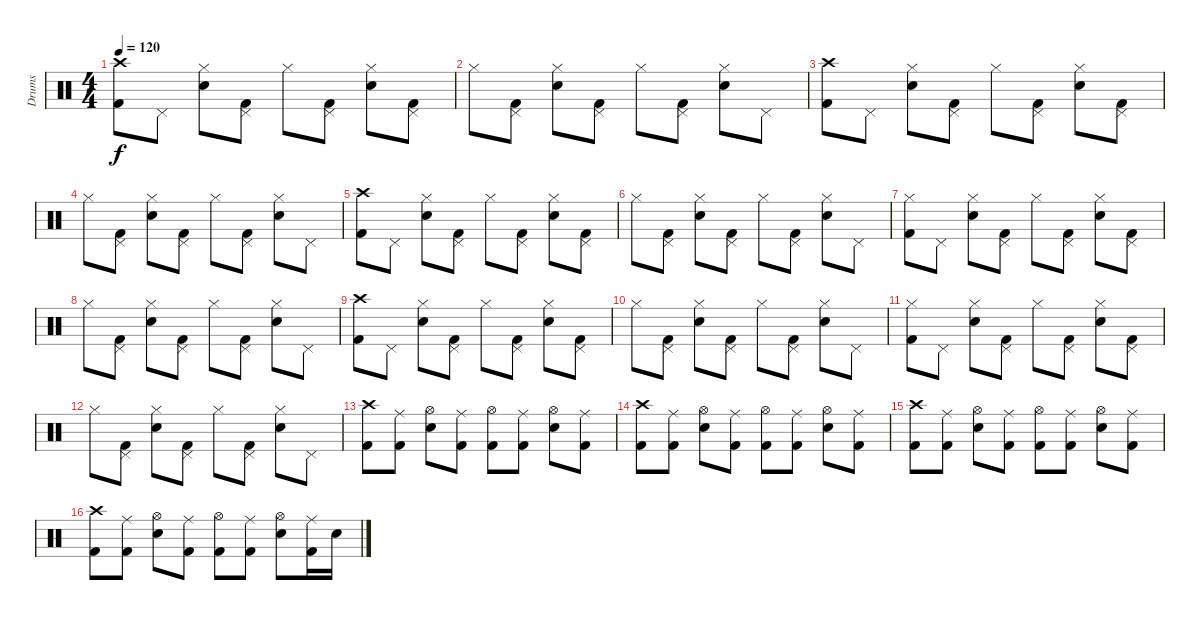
\track ("Drums" "Drums") {instrument percussion}
\staff {score}
\articulation defaults
\ts (4 4)
\tempo 120
\clef neutral
\ks c
("Kick (hit) 2" "Crash high (hit)").8{dy f} "Pedal Hi-Hat (hit)".8 ("Electric Snare (hit)" "Hi-Hat (closed)").8 ("Kick (hit) 2" "Pedal Hi-Hat (hit)").8 "Hi-Hat (closed)".8 ("Kick (hit) 2" "Pedal Hi-Hat (hit)").8 ("Electric Snare (hit)" "Hi-Hat (closed)").8 ("Kick (hit) 2" "Pedal Hi-Hat (hit)").8 |
"Hi-Hat (closed)".8 ("Kick (hit) 2" "Pedal Hi-Hat (hit)").8 ("Electric Snare (hit)" "Hi-Hat (closed)").8 ("Kick (hit) 2" "Pedal Hi-Hat (hit)").8 "Hi-Hat (closed)".8 ("Kick (hit) 2" "Pedal Hi-Hat (hit)").8 ("Electric Snare (hit)" "Hi-Hat (closed)").8 "Pedal Hi-Hat (hit)".8 |
("Kick (hit) 2" "Crash high (hit)").8 "Pedal Hi-Hat (hit)".8 ("Electric Snare (hit)" "Hi-Hat (closed)").8 ("Kick (hit) 2" "Pedal Hi-Hat (hit)").8 "Hi-Hat (closed)".8 ("Kick (hit) 2" "Pedal Hi-Hat (hit)").8 ("Electric Snare (hit)" "Hi-Hat (closed)").8 ("Kick (hit) 2" "Pedal Hi-Hat (hit)").8 |
"Hi-Hat (closed)".8 ("Kick (hit) 2" "Pedal Hi-Hat (hit)").8 ("Electric Snare (hit)" "Hi-Hat (closed)").8 ("Kick (hit) 2" "Pedal Hi-Hat (hit)").8 "Hi-Hat (closed)".8 ("Kick (hit) 2" "Pedal Hi-Hat (hit)").8 ("Electric Snare (hit)" "Hi-Hat (closed)").8 "Pedal Hi-Hat (hit)".8 |
("Kick (hit) 2" "Crash high (hit)").8 "Pedal Hi-Hat (hit)".8 ("Electric Snare (hit)" "Hi-Hat (closed)").8 ("Kick (hit) 2" "Pedal Hi-Hat (hit)").8 "Hi-Hat (closed)".8 ("Kick (hit) 2" "Pedal Hi-Hat (hit)").8 ("Electric Snare (hit)" "Hi-Hat (closed)").8 ("Kick (hit) 2" "Pedal Hi-Hat (hit)").8 |
"Hi-Hat (closed)".8 ("Kick (hit) 2" "Pedal Hi-Hat (hit)").8 ("Electric Snare (hit)" "Hi-Hat (closed)").8 ("Kick (hit) 2" "Pedal Hi-Hat (hit)").8 "Hi-Hat (closed)".8 ("Kick (hit) 2" "Pedal Hi-Hat (hit)").8 ("Electric Snare (hit)" "Hi-Hat (closed)").8 "Pedal Hi-Hat (hit)".8 |
("Kick (hit) 2" "Hi-Hat (closed)").8 "Pedal Hi-Hat (hit)".8 ("Electric Snare (hit)" "Hi-Hat (closed)").8 ("Kick (hit) 2" "Pedal Hi-Hat (hit)").8 "Hi-Hat (closed)".8 ("Kick (hit) 2" "Pedal Hi-Hat (hit)").8 ("Electric Snare (hit)" "Hi-Hat (closed)").8 ("Kick (hit) 2" "Pedal Hi-Hat (hit)").8 |
"Hi-Hat (closed)".8 ("Kick (hit) 2" "Pedal Hi-Hat (hit)").8 ("Electric Snare (hit)" "Hi-Hat (closed)").8 ("Kick (hit) 2" "Pedal Hi-Hat (hit)").8 "Hi-Hat (closed)".8 ("Kick (hit) 2" "Pedal Hi-Hat (hit)").8 ("Electric Snare (hit)" "Hi-Hat (closed)").8 "Pedal Hi-Hat (hit)".8 |
("Kick (hit) 2" "Crash high (hit)").8 "Pedal Hi-Hat (hit)".8 ("Electric Snare (hit)" "Hi-Hat (closed)").8 ("Kick (hit) 2" "Pedal Hi-Hat (hit)").8 "Hi-Hat (closed)".8 ("Kick (hit) 2" "Pedal Hi-Hat (hit)").8 ("Electric Snare (hit)" "Hi-Hat (closed)").8 ("Kick (hit) 2" "Pedal Hi-Hat (hit)").8 |
"Hi-Hat (closed)".8 ("Kick (hit) 2" "Pedal Hi-Hat (hit)").8 ("Electric Snare (hit)" "Hi-Hat (closed)").8 ("Kick (hit) 2" "Pedal Hi-Hat (hit)").8 "Hi-Hat (closed)".8 ("Kick (hit) 2" "Pedal Hi-Hat (hit)").8 ("Electric Snare (hit)" "Hi-Hat (closed)").8 "Pedal Hi-Hat (hit)".8 |
("Kick (hit) 2" "Hi-Hat (closed)").8 "Pedal Hi-Hat (hit)".8 ("Electric Snare (hit)" "Hi-Hat (closed)").8 ("Kick (hit) 2" "Pedal Hi-Hat (hit)").8 "Hi-Hat (closed)".8 ("Kick (hit) 2" "Pedal Hi-Hat (hit)").8 ("Electric Snare (hit)" "Hi-Hat (closed)").8 ("Kick (hit) 2" "Pedal Hi-Hat (hit)").8 |
"Hi-Hat (closed)".8 ("Kick (hit) 2" "Pedal Hi-Hat (hit)").8 ("Electric Snare (hit)" "Hi-Hat (closed)").8 ("Kick (hit) 2" "Pedal Hi-Hat (hit)").8 "Hi-Hat (closed)".8 ("Kick (hit) 2" "Pedal Hi-Hat (hit)").8 ("Electric Snare (hit)" "Hi-Hat (closed)").8 "Pedal Hi-Hat (hit)".8 |
("Kick (hit) 2" "Crash high (hit)").8 ("Kick (hit) 2" "Ride (middle)").8 ("Electric Snare (hit)" "Hi-Hat (open)").8 ("Kick (hit) 2" "Ride (middle)").8 ("Kick (hit) 2" "Hi-Hat (open)").8 ("Kick (hit) 2" "Ride (middle)").8 ("Electric Snare (hit)" "Hi-Hat (open)").8 ("Kick (hit) 2" "Ride (middle)").8 |
("Kick (hit) 2" "Crash high (hit)").8 ("Kick (hit) 2" "Ride (middle)").8 ("Electric Snare (hit)" "Hi-Hat (open)").8 ("Kick (hit) 2" "Ride (middle)").8 ("Kick (hit) 2" "Hi-Hat (open)").8 ("Kick (hit) 2" "Ride (middle)").8 ("Electric Snare (hit)" "Hi-Hat (open)").8 ("Kick (hit) 2" "Ride (middle)").8 |
("Kick (hit) 2" "Crash high (hit)").8 ("Kick (hit) 2" "Ride (middle)").8 ("Electric Snare (hit)" "Hi-Hat (open)").8 ("Kick (hit) 2" "Ride (middle)").8 ("Kick (hit) 2" "Hi-Hat (open)").8 ("Kick (hit) 2" "Ride (middle)").8 ("Electric Snare (hit)" "Hi-Hat (open)").8 ("Kick (hit) 2" "Ride (middle)").8 |
("Kick (hit) 2" "Crash high (hit)").8 ("Kick (hit) 2" "Ride (middle)").8 ("Electric Snare (hit)" "Hi-Hat (open)").8 ("Kick (hit) 2" "Ride (middle)").8 ("Kick (hit) 2" "Hi-Hat (open)").8 ("Kick (hit) 2" "Ride (middle)").8 ("Electric Snare (hit)" "Hi-Hat (open)").8 ("Kick (hit) 2" "Ride (middle)").16 "Electric Snare (hit)".16
